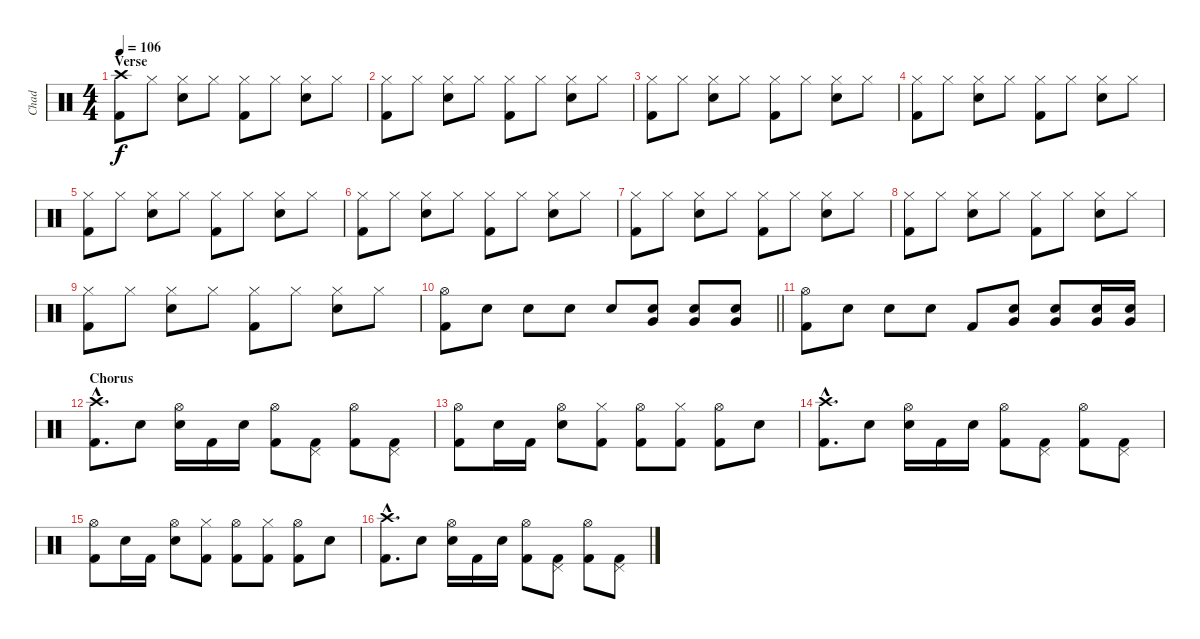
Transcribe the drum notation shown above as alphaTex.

\track ("Chad" "Chad") {instrument percussion}
\staff {score}
\articulation defaults
\ts (4 4)
\section ("" "Verse")
\tempo 106
\clef neutral
\ks c
("Crash high (hit)" "Kick (hit) 2").8{dy f} "Hi-Hat (closed)".8 ("Snare (hit) 2" "Hi-Hat (closed)").8 "Hi-Hat (closed)".8 ("Hi-Hat (closed)" "Kick (hit) 2").8 "Hi-Hat (closed)".8 ("Snare (hit) 2" "Hi-Hat (closed)").8 "Hi-Hat (closed)".8 |
("Hi-Hat (closed)" "Kick (hit) 2").8 "Hi-Hat (closed)".8 ("Snare (hit) 2" "Hi-Hat (closed)").8 "Hi-Hat (closed)".8 ("Hi-Hat (closed)" "Kick (hit) 2").8 "Hi-Hat (closed)".8 ("Snare (hit) 2" "Hi-Hat (closed)").8 "Hi-Hat (closed)".8 |
("Hi-Hat (closed)" "Kick (hit) 2").8 "Hi-Hat (closed)".8 ("Snare (hit) 2" "Hi-Hat (closed)").8 "Hi-Hat (closed)".8 ("Hi-Hat (closed)" "Kick (hit) 2").8 "Hi-Hat (closed)".8 ("Snare (hit) 2" "Hi-Hat (closed)").8 "Hi-Hat (closed)".8 |
("Hi-Hat (closed)" "Kick (hit) 2").8 "Hi-Hat (closed)".8 ("Snare (hit) 2" "Hi-Hat (closed)").8 "Hi-Hat (closed)".8 ("Hi-Hat (closed)" "Kick (hit) 2").8 "Hi-Hat (closed)".8 ("Snare (hit) 2" "Hi-Hat (closed)").8 "Hi-Hat (closed)".8 |
("Hi-Hat (closed)" "Kick (hit) 2").8 "Hi-Hat (closed)".8 ("Snare (hit) 2" "Hi-Hat (closed)").8 "Hi-Hat (closed)".8 ("Hi-Hat (closed)" "Kick (hit) 2").8 "Hi-Hat (closed)".8 ("Snare (hit) 2" "Hi-Hat (closed)").8 "Hi-Hat (closed)".8 |
("Hi-Hat (closed)" "Kick (hit) 2").8 "Hi-Hat (closed)".8 ("Snare (hit) 2" "Hi-Hat (closed)").8 "Hi-Hat (closed)".8 ("Hi-Hat (closed)" "Kick (hit) 2").8 "Hi-Hat (closed)".8 ("Snare (hit) 2" "Hi-Hat (closed)").8 "Hi-Hat (closed)".8 |
("Hi-Hat (closed)" "Kick (hit) 2").8 "Hi-Hat (closed)".8 ("Snare (hit) 2" "Hi-Hat (closed)").8 "Hi-Hat (closed)".8 ("Hi-Hat (closed)" "Kick (hit) 2").8 "Hi-Hat (closed)".8 ("Snare (hit) 2" "Hi-Hat (closed)").8 "Hi-Hat (closed)".8 |
("Hi-Hat (closed)" "Kick (hit) 2").8 "Hi-Hat (closed)".8 ("Snare (hit) 2" "Hi-Hat (closed)").8 "Hi-Hat (closed)".8 ("Hi-Hat (closed)" "Kick (hit) 2").8 "Hi-Hat (closed)".8 ("Snare (hit) 2" "Hi-Hat (closed)").8 "Hi-Hat (closed)".8 |
("Hi-Hat (closed)" "Kick (hit) 2").8 "Hi-Hat (closed)".8 ("Snare (hit) 2" "Hi-Hat (closed)").8 "Hi-Hat (closed)".8 ("Hi-Hat (closed)" "Kick (hit) 2").8 "Hi-Hat (closed)".8 ("Snare (hit) 2" "Hi-Hat (closed)").8 "Hi-Hat (closed)".8 |
\barLineRight lightlight
("Hi-Hat (open)" "Kick (hit) 2").8 "Electric Snare (hit)".8 "Electric Snare (hit)".8 "Electric Snare (hit)".8 "Electric Snare (hit)".8 ("Electric Snare (hit)" "Very Low Tom (hit)").8 ("Electric Snare (hit)" "Very Low Tom (hit)").8 ("Electric Snare (hit)" "Very Low Tom (hit)").8 |
("Hi-Hat (open)" "Kick (hit) 2").8 "Electric Snare (hit)".8 "Electric Snare (hit)".8 "Electric Snare (hit)".8 "Kick (hit) 2".8 ("Electric Snare (hit)" "Very Low Tom (hit)").8 ("Electric Snare (hit)" "Very Low Tom (hit)").8 ("Electric Snare (hit)" "Very Low Tom (hit)").16 ("Electric Snare (hit)" "Very Low Tom (hit)").16 |
\section ("" "Chorus")
("Crash high (hit)"{hac} "Kick (hit) 2"{hac}).8{d} "Electric Snare (hit)".8 ("Hi-Hat (open)" "Electric Snare (hit)").16 "Kick (hit) 2".16 "Electric Snare (hit)".16 ("Hi-Hat (open)" "Kick (hit) 2").8 ("Pedal Hi-Hat (hit)" "Kick (hit) 2").8 ("Hi-Hat (open)" "Kick (hit) 2").8 ("Pedal Hi-Hat (hit)" "Kick (hit) 2").8 |
("Hi-Hat (open)" "Kick (hit) 2").8 "Electric Snare (hit)".16 "Kick (hit) 2".16 ("Hi-Hat (open)" "Electric Snare (hit)").8 ("Hi-Hat (closed)" "Kick (hit) 2").8 ("Hi-Hat (open)" "Kick (hit) 2").8 ("Hi-Hat (closed)" "Kick (hit) 2").8 ("Hi-Hat (open)" "Kick (hit) 2").8 "Electric Snare (hit)".8 |
("Crash high (hit)"{hac} "Kick (hit) 2"{hac}).8{d} "Electric Snare (hit)".8 ("Hi-Hat (open)" "Electric Snare (hit)").16 "Kick (hit) 2".16 "Electric Snare (hit)".16 ("Hi-Hat (open)" "Kick (hit) 2").8 ("Pedal Hi-Hat (hit)" "Kick (hit) 2").8 ("Hi-Hat (open)" "Kick (hit) 2").8 ("Pedal Hi-Hat (hit)" "Kick (hit) 2").8 |
("Hi-Hat (open)" "Kick (hit) 2").8 "Electric Snare (hit)".16 "Kick (hit) 2".16 ("Hi-Hat (open)" "Electric Snare (hit)").8 ("Hi-Hat (closed)" "Kick (hit) 2").8 ("Hi-Hat (open)" "Kick (hit) 2").8 ("Hi-Hat (closed)" "Kick (hit) 2").8 ("Hi-Hat (open)" "Kick (hit) 2").8 "Electric Snare (hit)".8 |
("Crash high (hit)"{hac} "Kick (hit) 2"{hac}).8{d} "Electric Snare (hit)".8 ("Hi-Hat (open)" "Electric Snare (hit)").16 "Kick (hit) 2".16 "Electric Snare (hit)".16 ("Hi-Hat (open)" "Kick (hit) 2").8 ("Pedal Hi-Hat (hit)" "Kick (hit) 2").8 ("Hi-Hat (open)" "Kick (hit) 2").8 ("Pedal Hi-Hat (hit)" "Kick (hit) 2").8
